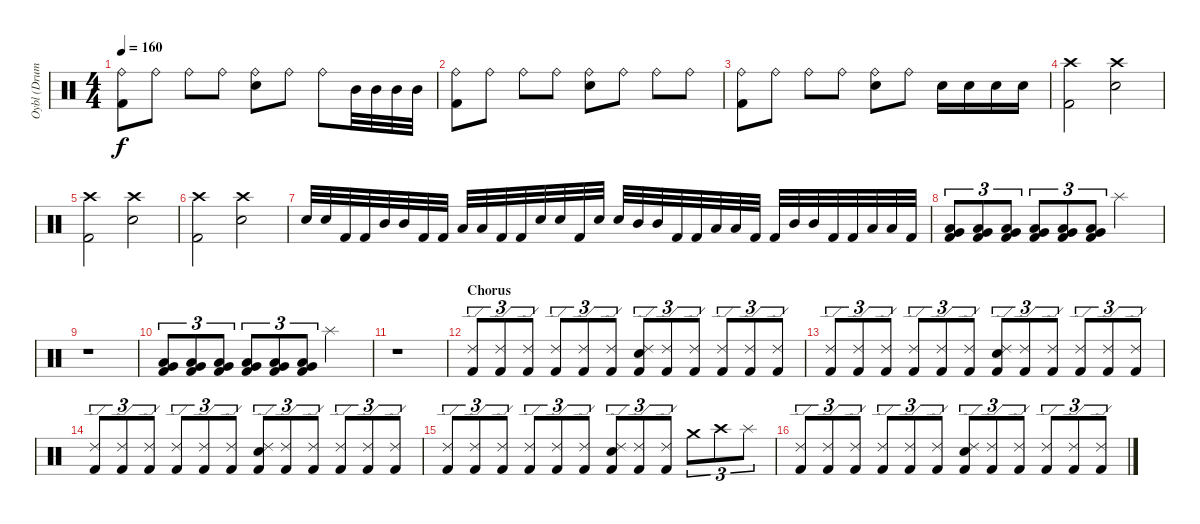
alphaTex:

\track ("Oybl (Drums)" "Oybl (Drum") {instrument percussion}
\staff {score}
\articulation defaults
\ts (4 4)
\tempo 160
\clef neutral
\ks c
("Ride (bell)" "Kick (hit) 2").8{dy f} "Ride (bell)".8 "Ride (bell)".8 "Ride (bell)".8 ("Ride (bell)" "Snare (hit) 2").8 "Ride (bell)".8 "Ride (bell)".8 "Mid Tom (hit)".32 "Mid Tom (hit)".32 "Mid Tom (hit)".32 "Mid Tom (hit)".32 |
("Ride (bell)" "Kick (hit) 2").8 "Ride (bell)".8 "Ride (bell)".8 "Ride (bell)".8 ("Ride (bell)" "Snare (hit) 2").8 "Ride (bell)".8 "Ride (bell)".8 "Ride (bell)".8 |
("Ride (bell)" "Kick (hit) 2").8 "Ride (bell)".8 "Ride (bell)".8 "Ride (bell)".8 ("Ride (bell)" "Snare (hit) 2").8 "Ride (bell)".8 "Snare (hit) 2".16 "Snare (hit) 2".16 "Snare (hit) 2".16 "Snare (hit) 2".16 |
("Crash high (hit)" "Kick (hit) 2").2 ("Crash high (hit)" "Snare (hit) 2").2 |
("Crash high (hit)" "Kick (hit) 2").2 ("Crash high (hit)" "Snare (hit) 2").2 |
("Crash high (hit)" "Kick (hit) 2").2 ("Crash high (hit)" "Snare (hit) 2").2 |
"Snare (hit) 2".32 "Snare (hit) 2".32 "Kick (hit) 2".32 "Kick (hit) 2".32 "Mid Tom (hit)".32 "Mid Tom (hit)".32 "Kick (hit) 2".32 "Kick (hit) 2".32 "Low Tom (hit)".32 "Low Tom (hit)".32 "Kick (hit) 2".32 "Kick (hit) 2".32 "Snare (hit) 2".32 "Snare (hit) 2".32 "Kick (hit) 2".32 "Snare (hit) 2".32 "Snare (hit) 2".32 "Mid Tom (hit)".32 "Mid Tom (hit)".32 "Kick (hit) 2".32 "Kick (hit) 2".32 "Low Tom (hit)".32 "Low Tom (hit)".32 "Kick (hit) 2".32 "Kick (hit) 2".32 "Mid Tom (hit)".32 "Mid Tom (hit)".32 "Kick (hit) 2".32 "Kick (hit) 2".32 "Low Tom (hit)".32 "Low Tom (hit)".32 "Kick (hit) 2".32 |
("Low Tom (hit)" "Very Low Tom (hit)" "Kick (hit) 2").8{tu (3 2)} ("Low Tom (hit)" "Very Low Tom (hit)" "Kick (hit) 2").8{tu (3 2)} ("Low Tom (hit)" "Very Low Tom (hit)" "Kick (hit) 2").8{tu (3 2)} ("Low Tom (hit)" "Very Low Tom (hit)" "Kick (hit) 2").8{tu (3 2)} ("Low Tom (hit)" "Very Low Tom (hit)" "Kick (hit) 2").8{tu (3 2)} ("Low Tom (hit)" "Very Low Tom (hit)" "Kick (hit) 2").8{tu (3 2)} "Splash (hit)".2 |
r.1 |
("Low Tom (hit)" "Very Low Tom (hit)" "Kick (hit) 2").8{tu (3 2)} ("Low Tom (hit)" "Very Low Tom (hit)" "Kick (hit) 2").8{tu (3 2)} ("Low Tom (hit)" "Very Low Tom (hit)" "Kick (hit) 2").8{tu (3 2)} ("Low Tom (hit)" "Very Low Tom (hit)" "Kick (hit) 2").8{tu (3 2)} ("Low Tom (hit)" "Very Low Tom (hit)" "Kick (hit) 2").8{tu (3 2)} ("Low Tom (hit)" "Very Low Tom (hit)" "Kick (hit) 2").8{tu (3 2)} "Splash (hit)".2 |
r.1 |
\section ("" "Chorus")
("Ride (edge) 2" "Kick (hit) 2").8{tu (3 2)} ("Ride (edge) 2" "Kick (hit) 2").8{tu (3 2)} ("Ride (edge) 2" "Kick (hit) 2").8{tu (3 2)} ("Ride (edge) 2" "Kick (hit) 2").8{tu (3 2)} ("Ride (edge) 2" "Kick (hit) 2").8{tu (3 2)} ("Ride (edge) 2" "Kick (hit) 2").8{tu (3 2)} ("Ride (edge) 2" "Snare (hit) 2" "Kick (hit) 2").8{tu (3 2)} ("Ride (edge) 2" "Kick (hit) 2").8{tu (3 2)} ("Ride (edge) 2" "Kick (hit) 2").8{tu (3 2)} ("Ride (edge) 2" "Kick (hit) 2").8{tu (3 2)} ("Ride (edge) 2" "Kick (hit) 2").8{tu (3 2)} ("Ride (edge) 2" "Kick (hit) 2").8{tu (3 2)} |
("Ride (edge) 2" "Kick (hit) 2").8{tu (3 2)} ("Ride (edge) 2" "Kick (hit) 2").8{tu (3 2)} ("Ride (edge) 2" "Kick (hit) 2").8{tu (3 2)} ("Ride (edge) 2" "Kick (hit) 2").8{tu (3 2)} ("Ride (edge) 2" "Kick (hit) 2").8{tu (3 2)} ("Ride (edge) 2" "Kick (hit) 2").8{tu (3 2)} ("Ride (edge) 2" "Snare (hit) 2" "Kick (hit) 2").8{tu (3 2)} ("Ride (edge) 2" "Kick (hit) 2").8{tu (3 2)} ("Ride (edge) 2" "Kick (hit) 2").8{tu (3 2)} ("Ride (edge) 2" "Kick (hit) 2").8{tu (3 2)} ("Ride (edge) 2" "Kick (hit) 2").8{tu (3 2)} ("Ride (edge) 2" "Kick (hit) 2").8{tu (3 2)} |
("Ride (edge) 2" "Kick (hit) 2").8{tu (3 2)} ("Ride (edge) 2" "Kick (hit) 2").8{tu (3 2)} ("Ride (edge) 2" "Kick (hit) 2").8{tu (3 2)} ("Ride (edge) 2" "Kick (hit) 2").8{tu (3 2)} ("Ride (edge) 2" "Kick (hit) 2").8{tu (3 2)} ("Ride (edge) 2" "Kick (hit) 2").8{tu (3 2)} ("Ride (edge) 2" "Snare (hit) 2" "Kick (hit) 2").8{tu (3 2)} ("Ride (edge) 2" "Kick (hit) 2").8{tu (3 2)} ("Ride (edge) 2" "Kick (hit) 2").8{tu (3 2)} ("Ride (edge) 2" "Kick (hit) 2").8{tu (3 2)} ("Ride (edge) 2" "Kick (hit) 2").8{tu (3 2)} ("Ride (edge) 2" "Kick (hit) 2").8{tu (3 2)} |
("Ride (edge) 2" "Kick (hit) 2").8{tu (3 2)} ("Ride (edge) 2" "Kick (hit) 2").8{tu (3 2)} ("Ride (edge) 2" "Kick (hit) 2").8{tu (3 2)} ("Ride (edge) 2" "Kick (hit) 2").8{tu (3 2)} ("Ride (edge) 2" "Kick (hit) 2").8{tu (3 2)} ("Ride (edge) 2" "Kick (hit) 2").8{tu (3 2)} ("Ride (edge) 2" "Snare (hit) 2" "Kick (hit) 2").8{tu (3 2)} ("Ride (edge) 2" "Kick (hit) 2").8{tu (3 2)} ("Ride (edge) 2" "Kick (hit) 2").8{tu (3 2)} "Crash medium (hit)".8{tu (3 2)} "Crash high (hit)".8{tu (3 2)} "Splash (hit)".8{tu (3 2)} |
("Ride (edge) 2" "Kick (hit) 2").8{tu (3 2)} ("Ride (edge) 2" "Kick (hit) 2").8{tu (3 2)} ("Ride (edge) 2" "Kick (hit) 2").8{tu (3 2)} ("Ride (edge) 2" "Kick (hit) 2").8{tu (3 2)} ("Ride (edge) 2" "Kick (hit) 2").8{tu (3 2)} ("Ride (edge) 2" "Kick (hit) 2").8{tu (3 2)} ("Ride (edge) 2" "Snare (hit) 2" "Kick (hit) 2").8{tu (3 2)} ("Ride (edge) 2" "Kick (hit) 2").8{tu (3 2)} ("Ride (edge) 2" "Kick (hit) 2").8{tu (3 2)} ("Ride (edge) 2" "Kick (hit) 2").8{tu (3 2)} ("Ride (edge) 2" "Kick (hit) 2").8{tu (3 2)} ("Ride (edge) 2" "Kick (hit) 2").8{tu (3 2)}
